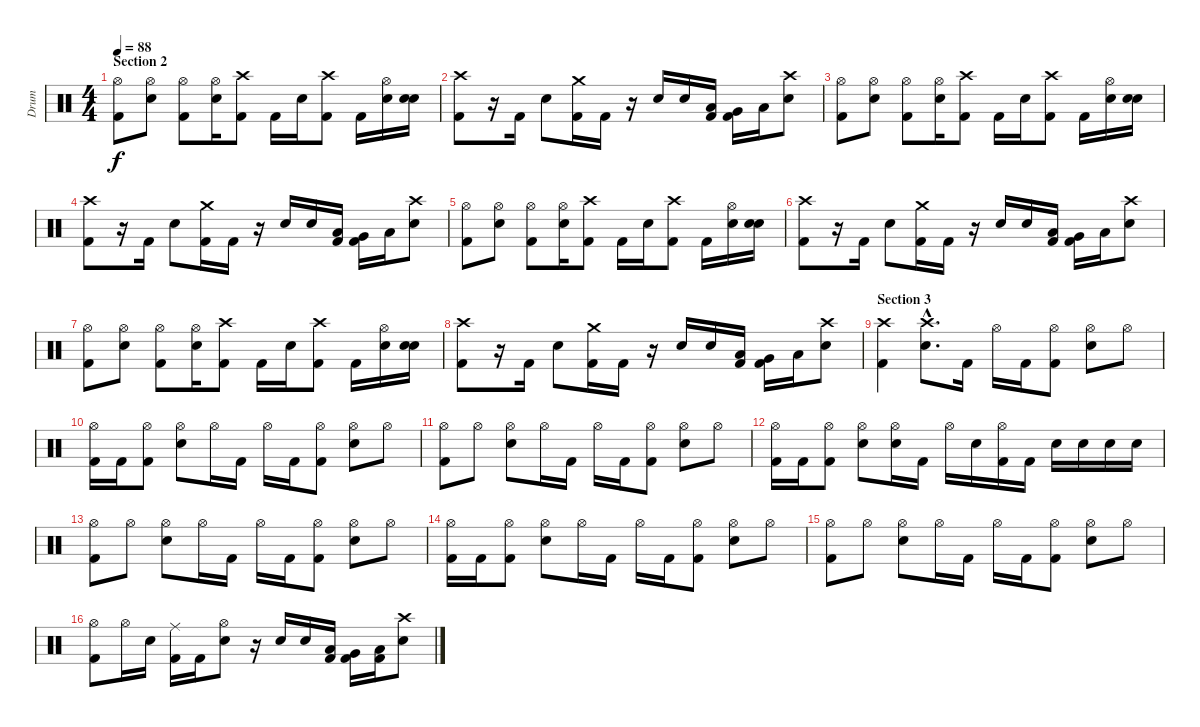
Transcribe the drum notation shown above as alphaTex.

\track ("Drum" "Drum") {instrument percussion}
\staff {score}
\articulation defaults
\ts (4 4)
\section ("" "Section 2")
\tempo 88
\clef neutral
\ks c
("Hi-Hat (open)" "Kick (hit) 2").8{dy f} ("Hi-Hat (open)" "Electric Snare (hit)").8 ("Hi-Hat (open)" "Kick (hit) 2").8 ("Hi-Hat (open)" "Electric Snare (hit)").16 ("Crash high (hit)" "Kick (hit) 2").8 "Kick (hit) 2".16 "Electric Snare (hit)".16 ("Crash high (hit)" "Kick (hit) 2").8 "Kick (hit) 2".16 ("Hi-Hat (open)" "Electric Snare (hit)").16 ("Electric Snare (hit)" "Electric Snare (hit)").16 |
("Crash high (hit)" "Kick (hit) 2").8 r.16 "Kick (hit) 2".16 "Electric Snare (hit)".8 ("Crash medium (hit)" "Kick (hit) 2").16 "Kick (hit) 2".16 r.16 "Electric Snare (hit)".16 "Electric Snare (hit)".16 ("Low Tom (hit)" "Kick (hit) 2").16 ("Very Low Tom (hit)" "Kick (hit) 2").16 "Low Floor Tom (hit)".16 ("Crash high (hit)" "Electric Snare (hit)").8 |
("Hi-Hat (open)" "Kick (hit) 2").8 ("Hi-Hat (open)" "Electric Snare (hit)").8 ("Hi-Hat (open)" "Kick (hit) 2").8 ("Hi-Hat (open)" "Electric Snare (hit)").16 ("Crash high (hit)" "Kick (hit) 2").8 "Kick (hit) 2".16 "Electric Snare (hit)".16 ("Crash high (hit)" "Kick (hit) 2").8 "Kick (hit) 2".16 ("Hi-Hat (open)" "Electric Snare (hit)").16 ("Electric Snare (hit)" "Electric Snare (hit)").16 |
("Crash high (hit)" "Kick (hit) 2").8 r.16 "Kick (hit) 2".16 "Electric Snare (hit)".8 ("Crash medium (hit)" "Kick (hit) 2").16 "Kick (hit) 2".16 r.16 "Electric Snare (hit)".16 "Electric Snare (hit)".16 ("Low Tom (hit)" "Kick (hit) 2").16 ("Very Low Tom (hit)" "Kick (hit) 2").16 "Low Floor Tom (hit)".16 ("Crash high (hit)" "Electric Snare (hit)").8 |
("Hi-Hat (open)" "Kick (hit) 2").8 ("Hi-Hat (open)" "Electric Snare (hit)").8 ("Hi-Hat (open)" "Kick (hit) 2").8 ("Hi-Hat (open)" "Electric Snare (hit)").16 ("Crash high (hit)" "Kick (hit) 2").8 "Kick (hit) 2".16 "Electric Snare (hit)".16 ("Crash high (hit)" "Kick (hit) 2").8 "Kick (hit) 2".16 ("Hi-Hat (open)" "Electric Snare (hit)").16 ("Electric Snare (hit)" "Electric Snare (hit)").16 |
("Crash high (hit)" "Kick (hit) 2").8 r.16 "Kick (hit) 2".16 "Electric Snare (hit)".8 ("Crash medium (hit)" "Kick (hit) 2").16 "Kick (hit) 2".16 r.16 "Electric Snare (hit)".16 "Electric Snare (hit)".16 ("Low Tom (hit)" "Kick (hit) 2").16 ("Very Low Tom (hit)" "Kick (hit) 2").16 "Low Floor Tom (hit)".16 ("Crash high (hit)" "Electric Snare (hit)").8 |
("Hi-Hat (open)" "Kick (hit) 2").8 ("Hi-Hat (open)" "Electric Snare (hit)").8 ("Hi-Hat (open)" "Kick (hit) 2").8 ("Hi-Hat (open)" "Electric Snare (hit)").16 ("Crash high (hit)" "Kick (hit) 2").8 "Kick (hit) 2".16 "Electric Snare (hit)".16 ("Crash high (hit)" "Kick (hit) 2").8 "Kick (hit) 2".16 ("Hi-Hat (open)" "Electric Snare (hit)").16 ("Electric Snare (hit)" "Electric Snare (hit)").16 |
("Crash high (hit)" "Kick (hit) 2").8 r.16 "Kick (hit) 2".16 "Electric Snare (hit)".8 ("Crash medium (hit)" "Kick (hit) 2").16 "Kick (hit) 2".16 r.16 "Electric Snare (hit)".16 "Electric Snare (hit)".16 ("Low Tom (hit)" "Kick (hit) 2").16 ("Very Low Tom (hit)" "Kick (hit) 2").16 "Low Floor Tom (hit)".16 ("Crash high (hit)" "Electric Snare (hit)").8 |
\section ("" "Section 3")
("Crash high (hit)" "Kick (hit) 2").4 ("Crash high (hit)"{hac} "Electric Snare (hit)"{hac}).8{d} "Kick (hit) 2".16 "Hi-Hat (open)".16 "Kick (hit) 2".16 ("Hi-Hat (open)" "Kick (hit) 2").8 ("Hi-Hat (open)" "Electric Snare (hit)").8 "Hi-Hat (open)".8 |
("Hi-Hat (open)" "Kick (hit) 2").16 "Kick (hit) 2".16 ("Hi-Hat (open)" "Kick (hit) 2").8 ("Hi-Hat (open)" "Electric Snare (hit)").8 "Hi-Hat (open)".16 "Kick (hit) 2".16 "Hi-Hat (open)".16 "Kick (hit) 2".16 ("Hi-Hat (open)" "Kick (hit) 2").8 ("Hi-Hat (open)" "Electric Snare (hit)").8 "Hi-Hat (open)".8 |
("Hi-Hat (open)" "Kick (hit) 2").8 "Hi-Hat (open)".8 ("Hi-Hat (open)" "Electric Snare (hit)").8 "Hi-Hat (open)".16 "Kick (hit) 2".16 "Hi-Hat (open)".16 "Kick (hit) 2".16 ("Hi-Hat (open)" "Kick (hit) 2").8 ("Hi-Hat (open)" "Electric Snare (hit)").8 "Hi-Hat (open)".8 |
("Hi-Hat (open)" "Kick (hit) 2").16 "Kick (hit) 2".16 ("Hi-Hat (open)" "Kick (hit) 2").8 ("Hi-Hat (open)" "Electric Snare (hit)").8 ("Hi-Hat (open)" "Electric Snare (hit)").16 "Kick (hit) 2".16 "Hi-Hat (open)".16 "Electric Snare (hit)".16 ("Hi-Hat (open)" "Kick (hit) 2").16 "Kick (hit) 2".16 "Electric Snare (hit)".16 "Electric Snare (hit)".16 "Electric Snare (hit)".16 "Electric Snare (hit)".16 |
("Hi-Hat (open)" "Kick (hit) 2").8 "Hi-Hat (open)".8 ("Hi-Hat (open)" "Electric Snare (hit)").8 "Hi-Hat (open)".16 "Kick (hit) 2".16 "Hi-Hat (open)".16 "Kick (hit) 2".16 ("Hi-Hat (open)" "Kick (hit) 2").8 ("Hi-Hat (open)" "Electric Snare (hit)").8 "Hi-Hat (open)".8 |
("Hi-Hat (open)" "Kick (hit) 2").16 "Kick (hit) 2".16 ("Hi-Hat (open)" "Kick (hit) 2").8 ("Hi-Hat (open)" "Electric Snare (hit)").8 "Hi-Hat (open)".16 "Kick (hit) 2".16 "Hi-Hat (open)".16 "Kick (hit) 2".16 ("Hi-Hat (open)" "Kick (hit) 2").8 ("Hi-Hat (open)" "Electric Snare (hit)").8 "Hi-Hat (open)".8 |
("Hi-Hat (open)" "Kick (hit) 2").8 "Hi-Hat (open)".8 ("Hi-Hat (open)" "Electric Snare (hit)").8 "Hi-Hat (open)".16 "Kick (hit) 2".16 "Hi-Hat (open)".16 "Kick (hit) 2".16 ("Hi-Hat (open)" "Kick (hit) 2").8 ("Hi-Hat (open)" "Electric Snare (hit)").8 "Hi-Hat (open)".8 |
("Hi-Hat (open)" "Kick (hit) 2").8 "Hi-Hat (open)".16 "Electric Snare (hit)".16 ("Ride (middle)" "Kick (hit) 2").16 "Kick (hit) 2".16 ("Hi-Hat (open)" "Electric Snare (hit)").8 r.16 "Electric Snare (hit)".16 "Electric Snare (hit)".16 ("Low Tom (hit)" "Kick (hit) 2").16 ("Very Low Tom (hit)" "Kick (hit) 2").16 ("Low Floor Tom (hit)" "Kick (hit) 2").16 ("Crash high (hit)" "Electric Snare (hit)").8
